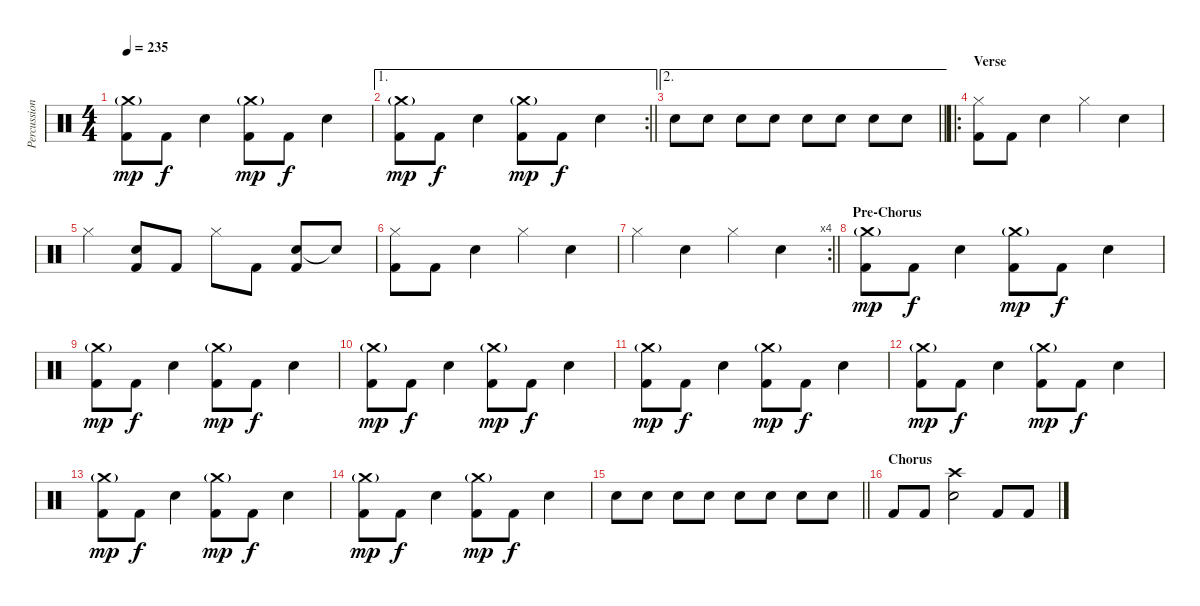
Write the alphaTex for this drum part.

\track ("Percussion" "Percussion") {instrument percussion}
\staff {score}
\articulation defaults
\ts (4 4)
\tempo 235
\clef neutral
\ks c
("Crash medium (hit)"{g} "Kick (hit) 2").8{dy mp} "Kick (hit) 2".8{dy f} "Electric Snare (hit)".4 ("Crash medium (hit)"{g} "Kick (hit) 2").8{dy mp} "Kick (hit) 2".8{dy f} "Electric Snare (hit)".4 |
\ae 1
\rc 2
\barLineRight lightlight
("Crash medium (hit)"{g} "Kick (hit) 2").8{dy mp} "Kick (hit) 2".8{dy f} "Electric Snare (hit)".4 ("Crash medium (hit)"{g} "Kick (hit) 2").8{dy mp} "Kick (hit) 2".8{dy f} "Electric Snare (hit)".4 |
\ae 2
\barLineRight lightlight "Electric Snare (hit)".8 "Electric Snare (hit)".8 "Electric Snare (hit)".8 "Electric Snare (hit)".8 "Electric Snare (hit)".8 "Electric Snare (hit)".8 "Electric Snare (hit)".8 "Electric Snare (hit)".8
|
\ro
\section ("" "Verse")
("Hi-Hat (closed)" "Kick (hit) 2").8 "Kick (hit) 2".8 "Electric Snare (hit)".4 "Hi-Hat (closed)".4 "Electric Snare (hit)".4 |
"Hi-Hat (closed)".4 ("Electric Snare (hit)" "Kick (hit) 2").8 "Kick (hit) 2".8 "Hi-Hat (closed)".8 "Kick (hit) 2".8 ("Electric Snare (hit)" "Kick (hit) 2").8 "Electric Snare (hit)"{t}.8 |
("Hi-Hat (closed)" "Kick (hit) 2").8 "Kick (hit) 2".8 "Electric Snare (hit)".4 "Hi-Hat (closed)".4 "Electric Snare (hit)".4 |
\rc 4
\barLineRight lightlight "Hi-Hat (closed)".4 "Electric Snare (hit)".4 "Hi-Hat (closed)".4 "Electric Snare (hit)".4
|
\section ("" "Pre-Chorus")
("Crash medium (hit)"{g} "Kick (hit) 2").8{dy mp} "Kick (hit) 2".8{dy f} "Electric Snare (hit)".4 ("Crash medium (hit)"{g} "Kick (hit) 2").8{dy mp} "Kick (hit) 2".8{dy f} "Electric Snare (hit)".4 |
("Crash medium (hit)"{g} "Kick (hit) 2").8{dy mp} "Kick (hit) 2".8{dy f} "Electric Snare (hit)".4 ("Crash medium (hit)"{g} "Kick (hit) 2").8{dy mp} "Kick (hit) 2".8{dy f} "Electric Snare (hit)".4 |
("Crash medium (hit)"{g} "Kick (hit) 2").8{dy mp} "Kick (hit) 2".8{dy f} "Electric Snare (hit)".4 ("Crash medium (hit)"{g} "Kick (hit) 2").8{dy mp} "Kick (hit) 2".8{dy f} "Electric Snare (hit)".4 |
("Crash medium (hit)"{g} "Kick (hit) 2").8{dy mp} "Kick (hit) 2".8{dy f} "Electric Snare (hit)".4 ("Crash medium (hit)"{g} "Kick (hit) 2").8{dy mp} "Kick (hit) 2".8{dy f} "Electric Snare (hit)".4 |
("Crash medium (hit)"{g} "Kick (hit) 2").8{dy mp} "Kick (hit) 2".8{dy f} "Electric Snare (hit)".4 ("Crash medium (hit)"{g} "Kick (hit) 2").8{dy mp} "Kick (hit) 2".8{dy f} "Electric Snare (hit)".4 |
("Crash medium (hit)"{g} "Kick (hit) 2").8{dy mp} "Kick (hit) 2".8{dy f} "Electric Snare (hit)".4 ("Crash medium (hit)"{g} "Kick (hit) 2").8{dy mp} "Kick (hit) 2".8{dy f} "Electric Snare (hit)".4 |
("Crash medium (hit)"{g} "Kick (hit) 2").8{dy mp} "Kick (hit) 2".8{dy f} "Electric Snare (hit)".4 ("Crash medium (hit)"{g} "Kick (hit) 2").8{dy mp} "Kick (hit) 2".8{dy f} "Electric Snare (hit)".4 |
\barLineRight lightlight "Electric Snare (hit)".8 "Electric Snare (hit)".8 "Electric Snare (hit)".8 "Electric Snare (hit)".8 "Electric Snare (hit)".8 "Electric Snare (hit)".8 "Electric Snare (hit)".8 "Electric Snare (hit)".8
|
\section ("" "Chorus")
"Kick (hit) 2".8 "Kick (hit) 2".8 ("Electric Snare (hit)" "Crash high (hit)").2 "Kick (hit) 2".8 "Kick (hit) 2".8
